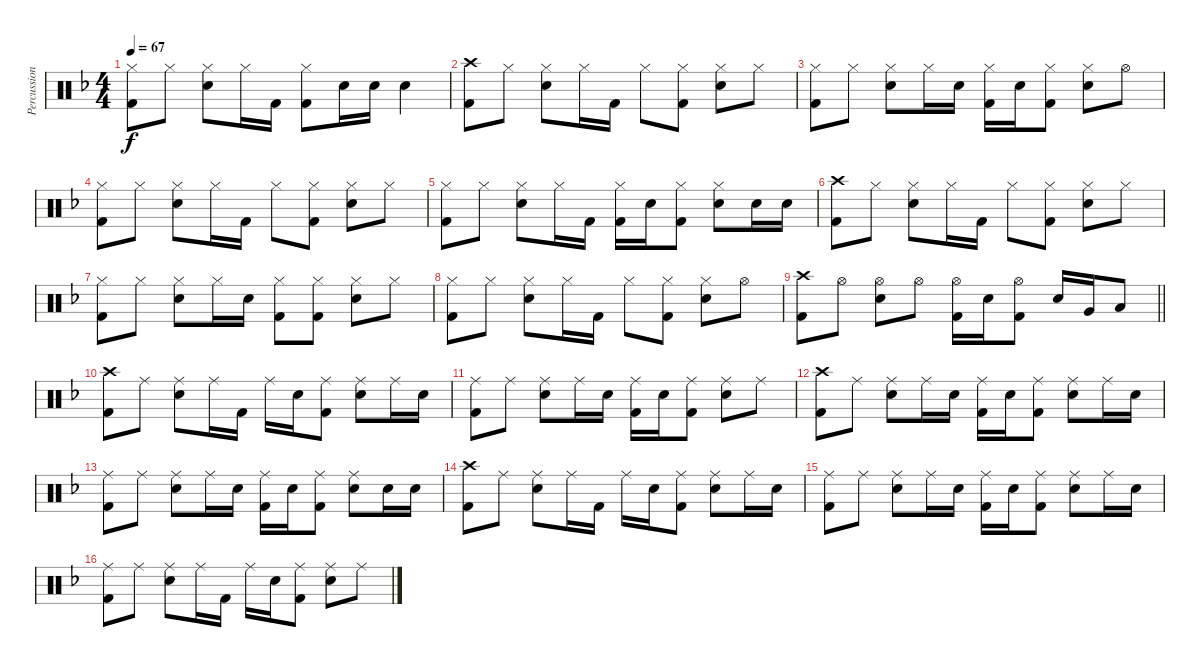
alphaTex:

\track ("Percussion" "Percussion") {instrument percussion}
\staff {score}
\articulation defaults
\ts (4 4)
\tempo 67
\clef neutral
\ks f
("Hi-Hat (closed)" "Kick (hit) 2").8{dy f} "Hi-Hat (closed)".8 ("Hi-Hat (closed)" "Electric Snare (hit)").8 "Hi-Hat (closed)".16 "Kick (hit) 2".16 ("Hi-Hat (closed)" "Kick (hit) 2").8 "Electric Snare (hit)".16 "Electric Snare (hit)".16 "Electric Snare (hit)".4 |
("Crash high (hit)" "Kick (hit) 2").8 "Hi-Hat (closed)".8 ("Hi-Hat (closed)" "Electric Snare (hit)").8 "Hi-Hat (closed)".16 "Kick (hit) 2".16 "Hi-Hat (closed)".8 ("Hi-Hat (closed)" "Kick (hit) 2").8 ("Hi-Hat (closed)" "Electric Snare (hit)").8 "Hi-Hat (closed)".8 |
("Hi-Hat (closed)" "Kick (hit) 2").8 "Hi-Hat (closed)".8 ("Hi-Hat (closed)" "Electric Snare (hit)").8 "Hi-Hat (closed)".16 "Electric Snare (hit)".16 ("Hi-Hat (closed)" "Kick (hit) 2").16 "Electric Snare (hit)".16 ("Hi-Hat (closed)" "Kick (hit) 2").8 ("Hi-Hat (closed)" "Electric Snare (hit)").8 "Hi-Hat (open)".8 |
("Hi-Hat (closed)" "Kick (hit) 2").8 "Hi-Hat (closed)".8 ("Hi-Hat (closed)" "Electric Snare (hit)").8 "Hi-Hat (closed)".16 "Kick (hit) 2".16 "Hi-Hat (closed)".8 ("Hi-Hat (closed)" "Kick (hit) 2").8 ("Hi-Hat (closed)" "Electric Snare (hit)").8 "Hi-Hat (closed)".8 |
("Hi-Hat (closed)" "Kick (hit) 2").8 "Hi-Hat (closed)".8 ("Hi-Hat (closed)" "Electric Snare (hit)").8 "Hi-Hat (closed)".16 "Kick (hit) 2".16 ("Hi-Hat (closed)" "Kick (hit) 2").16 "Electric Snare (hit)".16 ("Hi-Hat (closed)" "Kick (hit) 2").8 ("Hi-Hat (closed)" "Electric Snare (hit)").8 "Electric Snare (hit)".16 "Electric Snare (hit)".16 |
("Crash high (hit)" "Kick (hit) 2").8 "Hi-Hat (closed)".8 ("Hi-Hat (closed)" "Electric Snare (hit)").8 "Hi-Hat (closed)".16 "Kick (hit) 2".16 "Hi-Hat (closed)".8 ("Hi-Hat (closed)" "Kick (hit) 2").8 ("Hi-Hat (closed)" "Electric Snare (hit)").8 "Hi-Hat (closed)".8 |
("Hi-Hat (closed)" "Kick (hit) 2").8 "Hi-Hat (closed)".8 ("Hi-Hat (closed)" "Electric Snare (hit)").8 "Hi-Hat (closed)".16 "Electric Snare (hit)".16 ("Hi-Hat (closed)" "Kick (hit) 2").8 ("Hi-Hat (closed)" "Kick (hit) 2").8 ("Hi-Hat (closed)" "Electric Snare (hit)").8 "Hi-Hat (closed)".8 |
("Hi-Hat (closed)" "Kick (hit) 2").8 "Hi-Hat (closed)".8 ("Hi-Hat (closed)" "Electric Snare (hit)").8 "Hi-Hat (closed)".16 "Kick (hit) 2".16 "Hi-Hat (closed)".8 ("Hi-Hat (closed)" "Kick (hit) 2").8 ("Hi-Hat (closed)" "Electric Snare (hit)").8 "Hi-Hat (open)".8 |
\barLineRight lightlight
("Crash high (hit)" "Kick (hit) 2").8 "Hi-Hat (open)".8 ("Hi-Hat (open)" "Electric Snare (hit)").8 "Hi-Hat (open)".8 ("Hi-Hat (open)" "Kick (hit) 2").16 "Electric Snare (hit)".16 ("Hi-Hat (open)" "Kick (hit) 2").8 "Electric Snare (hit)".16 "Very Low Tom (hit)".16 "Low Floor Tom (hit)".8 |
\section ("" "")
("Crash high (hit)" "Kick (hit) 2").8 "Ride (middle)".8 ("Ride (middle)" "Electric Snare (hit)").8 "Ride (middle)".16 "Kick (hit) 2".16 "Ride (middle)".16 "Electric Snare (hit)".16 ("Ride (middle)" "Kick (hit) 2").8 ("Ride (middle)" "Electric Snare (hit)").8 "Ride (middle)".16 "Electric Snare (hit)".16 |
("Ride (middle)" "Kick (hit) 2").8 "Ride (middle)".8 ("Ride (middle)" "Electric Snare (hit)").8 "Ride (middle)".16 "Electric Snare (hit)".16 ("Ride (middle)" "Kick (hit) 2").16 "Electric Snare (hit)".16 ("Ride (middle)" "Kick (hit) 2").8 ("Ride (middle)" "Electric Snare (hit)").8 "Ride (middle)".8 |
("Crash high (hit)" "Kick (hit) 2").8 "Ride (middle)".8 ("Ride (middle)" "Electric Snare (hit)").8 "Ride (middle)".16 "Electric Snare (hit)".16 ("Ride (middle)" "Kick (hit) 2").16 "Electric Snare (hit)".16 ("Ride (middle)" "Kick (hit) 2").8 ("Ride (middle)" "Electric Snare (hit)").8 "Ride (middle)".16 "Electric Snare (hit)".16 |
("Ride (middle)" "Kick (hit) 2").8 "Ride (middle)".8 ("Ride (middle)" "Electric Snare (hit)").8 "Ride (middle)".16 "Electric Snare (hit)".16 ("Ride (middle)" "Kick (hit) 2").16 "Electric Snare (hit)".16 ("Ride (middle)" "Kick (hit) 2").8 ("Ride (middle)" "Electric Snare (hit)").8 "Electric Snare (hit)".16 "Electric Snare (hit)".16 |
("Crash high (hit)" "Kick (hit) 2").8 "Ride (middle)".8 ("Ride (middle)" "Electric Snare (hit)").8 "Ride (middle)".16 "Kick (hit) 2".16 "Ride (middle)".16 "Electric Snare (hit)".16 ("Ride (middle)" "Kick (hit) 2").8 ("Ride (middle)" "Electric Snare (hit)").8 "Ride (middle)".16 "Electric Snare (hit)".16 |
("Ride (middle)" "Kick (hit) 2").8 "Ride (middle)".8 ("Ride (middle)" "Electric Snare (hit)").8 "Ride (middle)".16 "Electric Snare (hit)".16 ("Ride (middle)" "Kick (hit) 2").16 "Electric Snare (hit)".16 ("Ride (middle)" "Kick (hit) 2").8 ("Ride (middle)" "Electric Snare (hit)").8 "Ride (middle)".16 "Electric Snare (hit)".16 |
("Ride (middle)" "Kick (hit) 2").8 "Ride (middle)".8 ("Ride (middle)" "Electric Snare (hit)").8 "Ride (middle)".16 "Kick (hit) 2".16 "Ride (middle)".16 "Electric Snare (hit)".16 ("Ride (middle)" "Kick (hit) 2").8 ("Ride (middle)" "Electric Snare (hit)").8 "Ride (middle)".8
